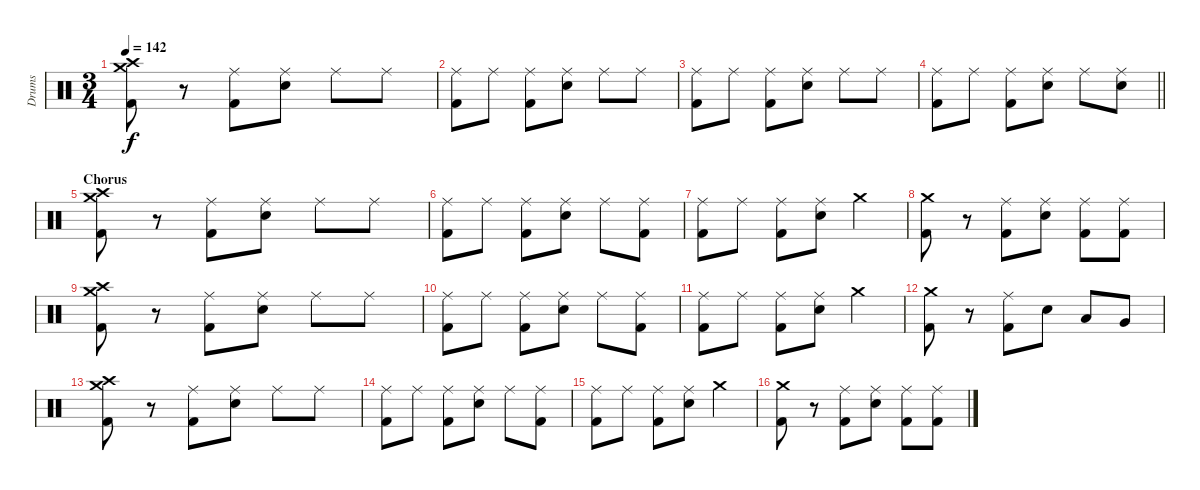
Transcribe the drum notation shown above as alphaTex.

\track ("Drums" "Drums") {instrument percussion}
\staff {score}
\articulation defaults
\ts (3 4)
\tempo 142
\clef neutral
\ks c
("Crash medium (hit)" "Crash high (hit)" "Kick (hit) 2").8{dy f} r.8 ("Ride (middle)" "Kick (hit) 2").8 ("Ride (middle)" "Electric Snare (hit)").8 "Ride (middle)".8 "Ride (middle)".8 |
("Ride (middle)" "Kick (hit) 2").8 "Ride (middle)".8 ("Ride (middle)" "Kick (hit) 2").8 ("Ride (middle)" "Electric Snare (hit)").8 "Ride (middle)".8 "Ride (middle)".8 |
("Ride (middle)" "Kick (hit) 2").8 "Ride (middle)".8 ("Ride (middle)" "Kick (hit) 2").8 ("Ride (middle)" "Electric Snare (hit)").8 "Ride (middle)".8 "Ride (middle)".8 |
\barLineRight lightlight
("Ride (middle)" "Kick (hit) 2").8 "Ride (middle)".8 ("Ride (middle)" "Kick (hit) 2").8 ("Ride (middle)" "Electric Snare (hit)").8 "Ride (middle)".8 ("Ride (middle)" "Electric Snare (hit)").8 |
\section ("" "Chorus")
("Crash medium (hit)" "Crash high (hit)" "Kick (hit) 2").8 r.8 ("Ride (middle)" "Kick (hit) 2").8 ("Ride (middle)" "Electric Snare (hit)").8 "Ride (middle)".8 "Ride (middle)".8 |
("Ride (middle)" "Kick (hit) 2").8 "Ride (middle)".8 ("Ride (middle)" "Kick (hit) 2").8 ("Ride (middle)" "Electric Snare (hit)").8 "Ride (middle)".8 ("Ride (middle)" "Kick (hit) 2").8 |
("Ride (middle)" "Kick (hit) 2").8 "Ride (middle)".8 ("Ride (middle)" "Kick (hit) 2").8 ("Ride (middle)" "Electric Snare (hit)").8 "Crash medium (hit)".4 |
("Crash medium (hit)" "Kick (hit) 2").8 r.8 ("Ride (middle)" "Kick (hit) 2").8 ("Ride (middle)" "Electric Snare (hit)").8 ("Ride (middle)" "Kick (hit) 2").8 ("Ride (middle)" "Kick (hit) 2").8 |
("Crash medium (hit)" "Crash high (hit)" "Kick (hit) 2").8 r.8 ("Ride (middle)" "Kick (hit) 2").8 ("Ride (middle)" "Electric Snare (hit)").8 "Ride (middle)".8 "Ride (middle)".8 |
("Ride (middle)" "Kick (hit) 2").8 "Ride (middle)".8 ("Ride (middle)" "Kick (hit) 2").8 ("Ride (middle)" "Electric Snare (hit)").8 "Ride (middle)".8 ("Ride (middle)" "Kick (hit) 2").8 |
("Ride (middle)" "Kick (hit) 2").8 "Ride (middle)".8 ("Ride (middle)" "Kick (hit) 2").8 ("Ride (middle)" "Electric Snare (hit)").8 "Crash medium (hit)".4 |
("Crash medium (hit)" "Kick (hit) 2").8 r.8 ("Ride (middle)" "Kick (hit) 2").8 "Electric Snare (hit)".8 "Low Tom (hit)".8 "Very Low Tom (hit)".8 |
("Crash medium (hit)" "Crash high (hit)" "Kick (hit) 2").8 r.8 ("Ride (middle)" "Kick (hit) 2").8 ("Ride (middle)" "Electric Snare (hit)").8 "Ride (middle)".8 "Ride (middle)".8 |
("Ride (middle)" "Kick (hit) 2").8 "Ride (middle)".8 ("Ride (middle)" "Kick (hit) 2").8 ("Ride (middle)" "Electric Snare (hit)").8 "Ride (middle)".8 ("Ride (middle)" "Kick (hit) 2").8 |
("Ride (middle)" "Kick (hit) 2").8 "Ride (middle)".8 ("Ride (middle)" "Kick (hit) 2").8 ("Ride (middle)" "Electric Snare (hit)").8 "Crash medium (hit)".4 |
("Crash medium (hit)" "Kick (hit) 2").8 r.8 ("Ride (middle)" "Kick (hit) 2").8 ("Ride (middle)" "Electric Snare (hit)").8 ("Ride (middle)" "Kick (hit) 2").8 ("Ride (middle)" "Kick (hit) 2").8
